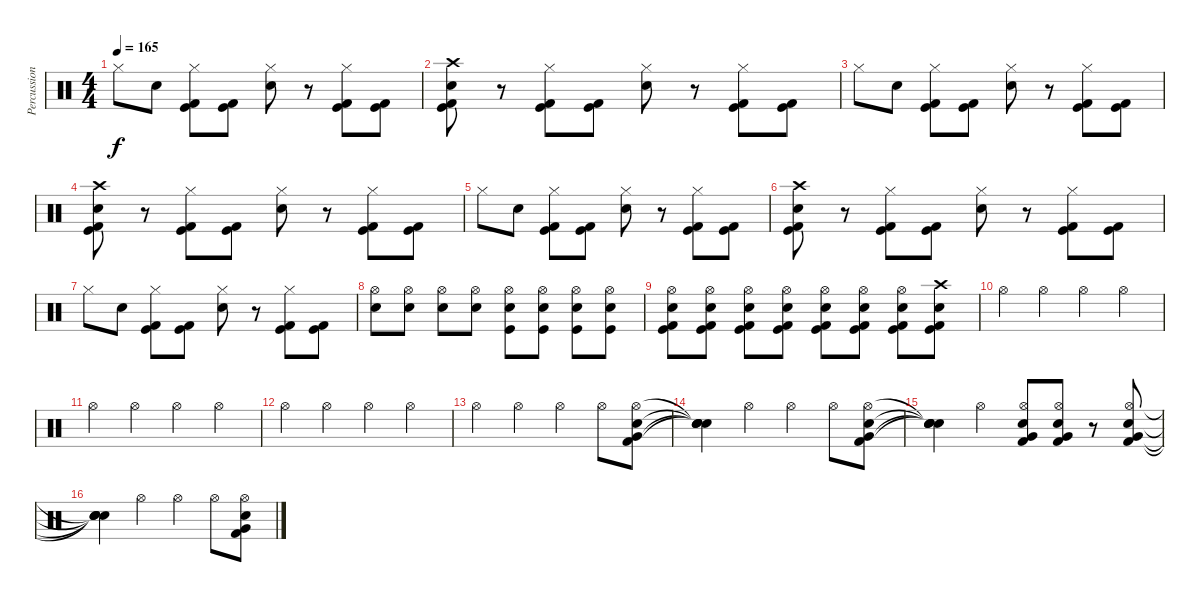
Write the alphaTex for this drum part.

\track ("Percussions" "Percussion") {instrument percussion}
\staff {score}
\articulation defaults
\ts (4 4)
\tempo 165
\clef neutral
\ks c "Hi-Hat (closed)".8{dy f} "Snare (hit) 2".8
("Kick (hit)" "Kick (hit) 2" "Hi-Hat (closed)").8 ("Kick (hit)" "Kick (hit) 2").8 ("Snare (hit) 2" "Hi-Hat (closed)").8 r.8 ("Kick (hit)" "Kick (hit) 2" "Hi-Hat (closed)").8 ("Kick (hit)" "Kick (hit) 2").8 |
("Snare (hit) 2" "Kick (hit)" "Kick (hit) 2" "Crash high (hit)").8 r.8 ("Kick (hit)" "Kick (hit) 2" "Hi-Hat (closed)").8 ("Kick (hit)" "Kick (hit) 2").8 ("Snare (hit) 2" "Hi-Hat (closed)").8 r.8 ("Kick (hit)" "Kick (hit) 2" "Hi-Hat (closed)").8 ("Kick (hit)" "Kick (hit) 2").8 |
"Hi-Hat (closed)".8 "Snare (hit) 2".8 ("Kick (hit)" "Kick (hit) 2" "Hi-Hat (closed)").8 ("Kick (hit)" "Kick (hit) 2").8 ("Snare (hit) 2" "Hi-Hat (closed)").8 r.8 ("Kick (hit)" "Kick (hit) 2" "Hi-Hat (closed)").8 ("Kick (hit)" "Kick (hit) 2").8 |
("Snare (hit) 2" "Kick (hit)" "Kick (hit) 2" "Crash high (hit)").8 r.8 ("Kick (hit)" "Kick (hit) 2" "Hi-Hat (closed)").8 ("Kick (hit)" "Kick (hit) 2").8 ("Snare (hit) 2" "Hi-Hat (closed)").8 r.8 ("Kick (hit)" "Kick (hit) 2" "Hi-Hat (closed)").8 ("Kick (hit)" "Kick (hit) 2").8 |
"Hi-Hat (closed)".8 "Snare (hit) 2".8 ("Kick (hit)" "Kick (hit) 2" "Hi-Hat (closed)").8 ("Kick (hit)" "Kick (hit) 2").8 ("Snare (hit) 2" "Hi-Hat (closed)").8 r.8 ("Kick (hit)" "Kick (hit) 2" "Hi-Hat (closed)").8 ("Kick (hit)" "Kick (hit) 2").8 |
("Snare (hit) 2" "Kick (hit)" "Kick (hit) 2" "Crash high (hit)").8 r.8 ("Kick (hit)" "Kick (hit) 2" "Hi-Hat (closed)").8 ("Kick (hit)" "Kick (hit) 2").8 ("Snare (hit) 2" "Hi-Hat (closed)").8 r.8 ("Kick (hit)" "Kick (hit) 2" "Hi-Hat (closed)").8 ("Kick (hit)" "Kick (hit) 2").8 |
"Hi-Hat (closed)".8 "Snare (hit) 2".8 ("Kick (hit)" "Kick (hit) 2" "Hi-Hat (closed)").8 ("Kick (hit)" "Kick (hit) 2").8 ("Snare (hit) 2" "Hi-Hat (closed)").8 r.8 ("Kick (hit)" "Kick (hit) 2" "Hi-Hat (closed)").8 ("Kick (hit)" "Kick (hit) 2").8 |
("Snare (hit) 2" "Hi-Hat (open)").8 ("Snare (hit) 2" "Hi-Hat (open)").8 ("Snare (hit) 2" "Hi-Hat (open)").8 ("Snare (hit) 2" "Hi-Hat (open)").8 ("Snare (hit) 2" "Kick (hit)" "Hi-Hat (open)").8 ("Snare (hit) 2" "Kick (hit)" "Hi-Hat (open)").8 ("Snare (hit) 2" "Kick (hit)" "Hi-Hat (open)").8 ("Snare (hit) 2" "Kick (hit)" "Hi-Hat (open)").8 |
("Snare (hit) 2" "Kick (hit)" "Kick (hit) 2" "Hi-Hat (open)").8 ("Snare (hit) 2" "Kick (hit)" "Kick (hit) 2" "Hi-Hat (open)").8 ("Snare (hit) 2" "Kick (hit)" "Kick (hit) 2" "Hi-Hat (open)").8 ("Snare (hit) 2" "Kick (hit)" "Kick (hit) 2" "Hi-Hat (open)").8 ("Snare (hit) 2" "Kick (hit)" "Kick (hit) 2" "Hi-Hat (open)").8 ("Snare (hit) 2" "Kick (hit)" "Kick (hit) 2" "Hi-Hat (open)").8 ("Snare (hit) 2" "Kick (hit)" "Kick (hit) 2" "Hi-Hat (open)").8 ("Snare (hit) 2" "Kick (hit)" "Kick (hit) 2" "Crash high (hit)").8 |
"Hi-Hat (open)".4 "Hi-Hat (open)".4 "Hi-Hat (open)".4 "Hi-Hat (open)".4 |
"Hi-Hat (open)".4 "Hi-Hat (open)".4 "Hi-Hat (open)".4 "Hi-Hat (open)".4 |
"Hi-Hat (open)".4 "Hi-Hat (open)".4 "Hi-Hat (open)".4 "Hi-Hat (open)".4 |
"Hi-Hat (open)".4 "Hi-Hat (open)".4 "Hi-Hat (open)".4 "Hi-Hat (open)".8 ("Hi-Hat (open)" "Snare (hit) 2" "Very Low Tom (hit)" "Kick (hit) 2").8 |
("Snare (hit)"{t} "Snare (hit)"{t} "Snare (hit)"{t} "Snare (hit)"{t}).4 "Hi-Hat (open)".4 "Hi-Hat (open)".4 "Hi-Hat (open)".8 ("Hi-Hat (open)" "Snare (hit) 2" "Very Low Tom (hit)" "Kick (hit) 2").8 |
("Snare (hit)"{t} "Snare (hit)"{t} "Snare (hit)"{t} "Snare (hit)"{t}).4 "Hi-Hat (open)".4 ("Hi-Hat (open)" "Snare (hit) 2" "Very Low Tom (hit)" "Kick (hit) 2").8 ("Hi-Hat (open)" "Snare (hit) 2" "Very Low Tom (hit)" "Kick (hit) 2").8 r.8 ("Hi-Hat (open)" "Snare (hit) 2" "Very Low Tom (hit)" "Kick (hit) 2").8 |
("Snare (hit)"{t} "Snare (hit)"{t} "Snare (hit)"{t} "Snare (hit)"{t}).4 "Hi-Hat (open)".4 "Hi-Hat (open)".4 "Hi-Hat (open)".8 ("Hi-Hat (open)" "Snare (hit) 2" "Very Low Tom (hit)" "Kick (hit) 2").8
